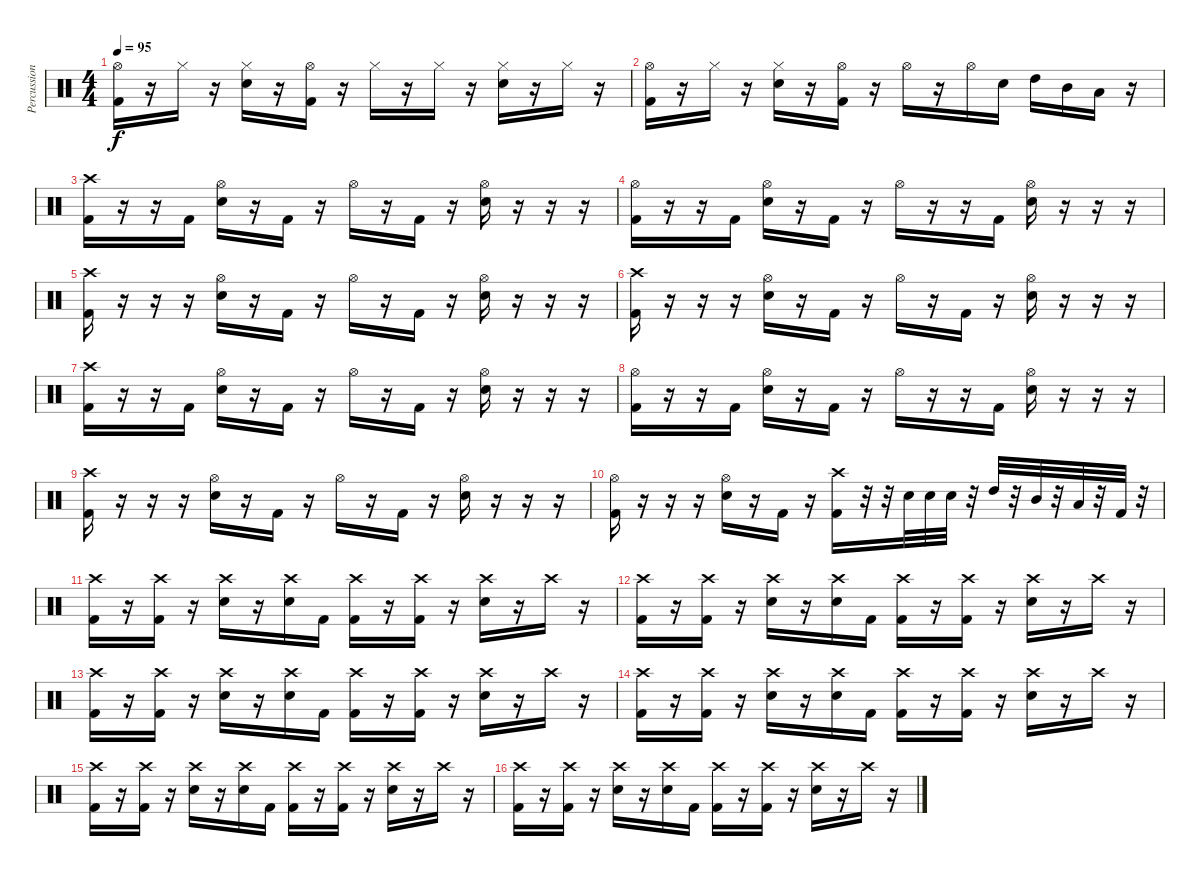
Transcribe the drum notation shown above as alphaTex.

\track ("Percussion" "Percussion") {instrument percussion}
\staff {score}
\articulation defaults
\ts (4 4)
\tempo 95
\clef neutral
\ks c
("Hi-Hat (open)" "Kick (hit) 2").16{dy f} r.16 "Hi-Hat (closed)".16 r.16 ("Hi-Hat (closed)" "Snare (hit) 2").16 r.16 ("Hi-Hat (open)" "Kick (hit) 2").16 r.16 "Hi-Hat (closed)".16 r.16 "Hi-Hat (closed)".16 r.16 ("Hi-Hat (closed)" "Snare (hit) 2").16 r.16 "Hi-Hat (closed)".16 r.16 |
("Hi-Hat (open)" "Kick (hit) 2").16 r.16 "Hi-Hat (closed)".16 r.16 ("Hi-Hat (closed)" "Snare (hit) 2").16 r.16 ("Hi-Hat (open)" "Kick (hit) 2").16 r.16 "Hi-Hat (open)".16 r.16 "Hi-Hat (open)".16 "Snare (hit) 2".16 "High Tom (hit)".16 "Mid Tom (hit)".16 "Low Floor Tom (hit)".16 r.16 |
("Crash high (hit)" "Kick (hit) 2").16 r.16 r.16 "Kick (hit) 2".16 ("Hi-Hat (open)" "Snare (hit) 2").16 r.16 "Kick (hit) 2".16 r.16 "Hi-Hat (open)".16 r.16 "Kick (hit) 2".16 r.16 ("Hi-Hat (open)" "Snare (hit) 2").16 r.16 r.16 r.16 |
("Hi-Hat (open)" "Kick (hit) 2").16 r.16 r.16 "Kick (hit) 2".16 ("Hi-Hat (open)" "Snare (hit) 2").16 r.16 "Kick (hit) 2".16 r.16 "Hi-Hat (open)".16 r.16 r.16 "Kick (hit) 2".16 ("Hi-Hat (open)" "Snare (hit) 2").16 r.16 r.16 r.16 |
("Crash high (hit)" "Kick (hit) 2").16 r.16 r.16 r.16 ("Hi-Hat (open)" "Snare (hit) 2").16 r.16 "Kick (hit) 2".16 r.16 "Hi-Hat (open)".16 r.16 "Kick (hit) 2".16 r.16 ("Hi-Hat (open)" "Snare (hit) 2").16 r.16 r.16 r.16 |
("Crash high (hit)" "Kick (hit) 2").16 r.16 r.16 r.16 ("Hi-Hat (open)" "Snare (hit) 2").16 r.16 "Kick (hit) 2".16 r.16 "Hi-Hat (open)".16 r.16 "Kick (hit) 2".16 r.16 ("Hi-Hat (open)" "Snare (hit) 2").16 r.16 r.16 r.16 |
("Crash high (hit)" "Kick (hit) 2").16 r.16 r.16 "Kick (hit) 2".16 ("Hi-Hat (open)" "Snare (hit) 2").16 r.16 "Kick (hit) 2".16 r.16 "Hi-Hat (open)".16 r.16 "Kick (hit) 2".16 r.16 ("Hi-Hat (open)" "Snare (hit) 2").16 r.16 r.16 r.16 |
("Hi-Hat (open)" "Kick (hit) 2").16 r.16 r.16 "Kick (hit) 2".16 ("Hi-Hat (open)" "Snare (hit) 2").16 r.16 "Kick (hit) 2".16 r.16 "Hi-Hat (open)".16 r.16 r.16 "Kick (hit) 2".16 ("Hi-Hat (open)" "Snare (hit) 2").16 r.16 r.16 r.16 |
("Crash high (hit)" "Kick (hit) 2").16 r.16 r.16 r.16 ("Hi-Hat (open)" "Snare (hit) 2").16 r.16 "Kick (hit) 2".16 r.16 "Hi-Hat (open)".16 r.16 "Kick (hit) 2".16 r.16 ("Hi-Hat (open)" "Snare (hit) 2").16 r.16 r.16 r.16 |
("Hi-Hat (open)" "Kick (hit) 2").16 r.16 r.16 r.16 ("Hi-Hat (open)" "Snare (hit) 2").16 r.16 "Kick (hit) 2".16 r.16 ("Crash high (hit)" "Kick (hit) 2").16 r.32 r.32 "Snare (hit) 2".32 "Snare (hit) 2".32 "Snare (hit) 2".32 r.32 "High Tom (hit)".32 r.32 "Mid Tom (hit)".32 r.32 "Low Floor Tom (hit)".32 r.32 "Kick (hit) 2".32 r.32 |
("Crash high (hit)" "Kick (hit) 2").16 r.16 ("Crash high (hit)" "Kick (hit) 2").16 r.16 ("Crash high (hit)" "Snare (hit) 2").16 r.16 ("Crash high (hit)" "Snare (hit) 2").16 "Kick (hit) 2".16 ("Crash high (hit)" "Kick (hit) 2").16 r.16 ("Crash high (hit)" "Kick (hit) 2").16 r.16 ("Crash high (hit)" "Snare (hit) 2").16 r.16 "Crash high (hit)".16 r.16 |
("Crash high (hit)" "Kick (hit) 2").16 r.16 ("Crash high (hit)" "Kick (hit) 2").16 r.16 ("Crash high (hit)" "Snare (hit) 2").16 r.16 ("Crash high (hit)" "Snare (hit) 2").16 "Kick (hit) 2".16 ("Crash high (hit)" "Kick (hit) 2").16 r.16 ("Crash high (hit)" "Kick (hit) 2").16 r.16 ("Crash high (hit)" "Snare (hit) 2").16 r.16 "Crash high (hit)".16 r.16 |
("Crash high (hit)" "Kick (hit) 2").16 r.16 ("Crash high (hit)" "Kick (hit) 2").16 r.16 ("Crash high (hit)" "Snare (hit) 2").16 r.16 ("Crash high (hit)" "Snare (hit) 2").16 "Kick (hit) 2".16 ("Crash high (hit)" "Kick (hit) 2").16 r.16 ("Crash high (hit)" "Kick (hit) 2").16 r.16 ("Crash high (hit)" "Snare (hit) 2").16 r.16 "Crash high (hit)".16 r.16 |
("Crash high (hit)" "Kick (hit) 2").16 r.16 ("Crash high (hit)" "Kick (hit) 2").16 r.16 ("Crash high (hit)" "Snare (hit) 2").16 r.16 ("Crash high (hit)" "Snare (hit) 2").16 "Kick (hit) 2".16 ("Crash high (hit)" "Kick (hit) 2").16 r.16 ("Crash high (hit)" "Kick (hit) 2").16 r.16 ("Crash high (hit)" "Snare (hit) 2").16 r.16 "Crash high (hit)".16 r.16 |
("Crash high (hit)" "Kick (hit) 2").16 r.16 ("Crash high (hit)" "Kick (hit) 2").16 r.16 ("Crash high (hit)" "Snare (hit) 2").16 r.16 ("Crash high (hit)" "Snare (hit) 2").16 "Kick (hit) 2".16 ("Crash high (hit)" "Kick (hit) 2").16 r.16 ("Crash high (hit)" "Kick (hit) 2").16 r.16 ("Crash high (hit)" "Snare (hit) 2").16 r.16 "Crash high (hit)".16 r.16 |
("Crash high (hit)" "Kick (hit) 2").16 r.16 ("Crash high (hit)" "Kick (hit) 2").16 r.16 ("Crash high (hit)" "Snare (hit) 2").16 r.16 ("Crash high (hit)" "Snare (hit) 2").16 "Kick (hit) 2".16 ("Crash high (hit)" "Kick (hit) 2").16 r.16 ("Crash high (hit)" "Kick (hit) 2").16 r.16 ("Crash high (hit)" "Snare (hit) 2").16 r.16 "Crash high (hit)".16 r.16
